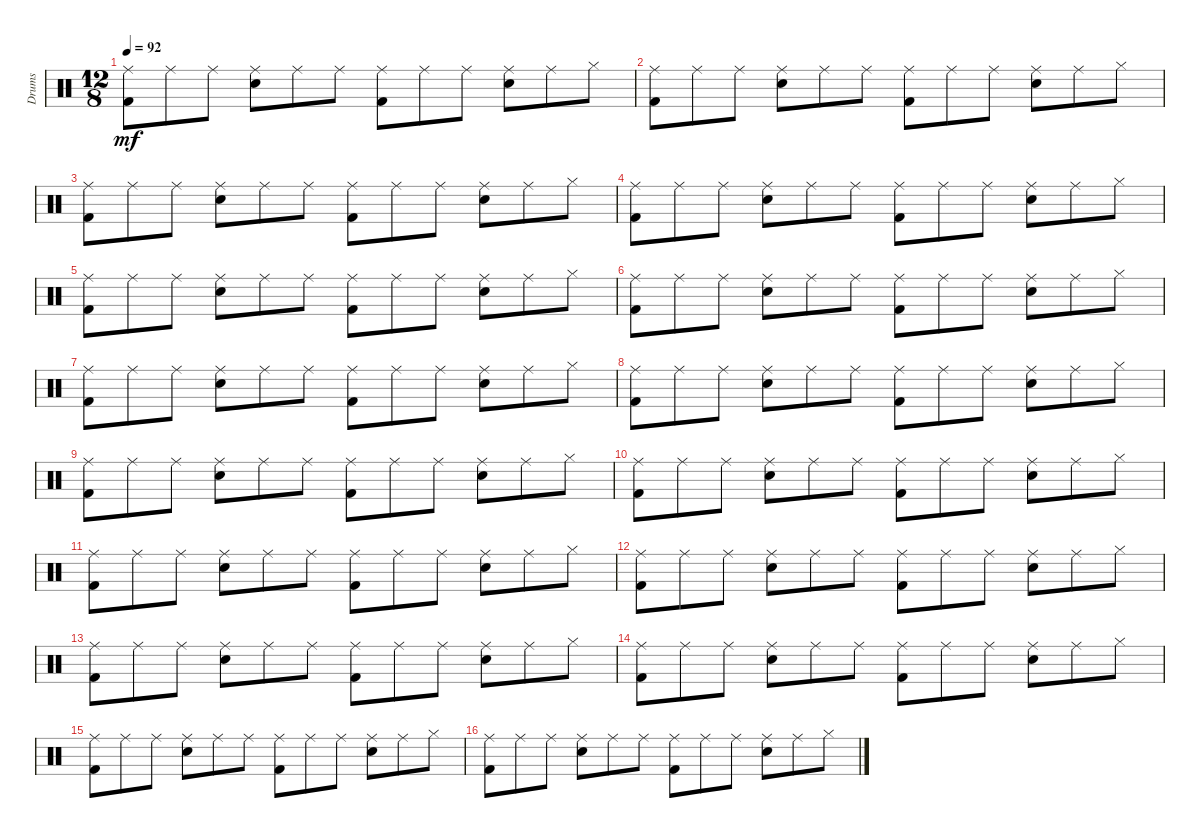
\track ("Drums" "Drums") {instrument percussion}
\staff {score}
\articulation defaults
\ts (12 8)
\tempo 92
\clef neutral
\ks c
("Ride (middle)" "Kick (hit) 2").8{dy mf} "Ride (middle)".8 "Ride (middle)".8 ("Ride (middle)" "Electric Snare (hit)").8 "Ride (middle)".8 "Ride (middle)".8 ("Ride (middle)" "Kick (hit) 2").8 "Ride (middle)".8 "Ride (middle)".8 ("Ride (middle)" "Electric Snare (hit)").8 "Ride (middle)".8 "Hi-Hat (closed)".8 |
("Ride (middle)" "Kick (hit) 2").8 "Ride (middle)".8 "Ride (middle)".8 ("Ride (middle)" "Electric Snare (hit)").8 "Ride (middle)".8 "Ride (middle)".8 ("Ride (middle)" "Kick (hit) 2").8 "Ride (middle)".8 "Ride (middle)".8 ("Ride (middle)" "Electric Snare (hit)").8 "Ride (middle)".8 "Hi-Hat (closed)".8 |
("Ride (middle)" "Kick (hit) 2").8 "Ride (middle)".8 "Ride (middle)".8 ("Ride (middle)" "Electric Snare (hit)").8 "Ride (middle)".8 "Ride (middle)".8 ("Ride (middle)" "Kick (hit) 2").8 "Ride (middle)".8 "Ride (middle)".8 ("Ride (middle)" "Electric Snare (hit)").8 "Ride (middle)".8 "Hi-Hat (closed)".8 |
("Ride (middle)" "Kick (hit) 2").8 "Ride (middle)".8 "Ride (middle)".8 ("Ride (middle)" "Electric Snare (hit)").8 "Ride (middle)".8 "Ride (middle)".8 ("Ride (middle)" "Kick (hit) 2").8 "Ride (middle)".8 "Ride (middle)".8 ("Ride (middle)" "Electric Snare (hit)").8 "Ride (middle)".8 "Hi-Hat (closed)".8 |
("Ride (middle)" "Kick (hit) 2").8 "Ride (middle)".8 "Ride (middle)".8 ("Ride (middle)" "Electric Snare (hit)").8 "Ride (middle)".8 "Ride (middle)".8 ("Ride (middle)" "Kick (hit) 2").8 "Ride (middle)".8 "Ride (middle)".8 ("Ride (middle)" "Electric Snare (hit)").8 "Ride (middle)".8 "Hi-Hat (closed)".8 |
("Ride (middle)" "Kick (hit) 2").8 "Ride (middle)".8 "Ride (middle)".8 ("Ride (middle)" "Electric Snare (hit)").8 "Ride (middle)".8 "Ride (middle)".8 ("Ride (middle)" "Kick (hit) 2").8 "Ride (middle)".8 "Ride (middle)".8 ("Ride (middle)" "Electric Snare (hit)").8 "Ride (middle)".8 "Hi-Hat (closed)".8 |
("Ride (middle)" "Kick (hit) 2").8 "Ride (middle)".8 "Ride (middle)".8 ("Ride (middle)" "Electric Snare (hit)").8 "Ride (middle)".8 "Ride (middle)".8 ("Ride (middle)" "Kick (hit) 2").8 "Ride (middle)".8 "Ride (middle)".8 ("Ride (middle)" "Electric Snare (hit)").8 "Ride (middle)".8 "Hi-Hat (closed)".8 |
("Ride (middle)" "Kick (hit) 2").8 "Ride (middle)".8 "Ride (middle)".8 ("Ride (middle)" "Electric Snare (hit)").8 "Ride (middle)".8 "Ride (middle)".8 ("Ride (middle)" "Kick (hit) 2").8 "Ride (middle)".8 "Ride (middle)".8 ("Ride (middle)" "Electric Snare (hit)").8 "Ride (middle)".8 "Hi-Hat (closed)".8 |
("Ride (middle)" "Kick (hit) 2").8 "Ride (middle)".8 "Ride (middle)".8 ("Ride (middle)" "Electric Snare (hit)").8 "Ride (middle)".8 "Ride (middle)".8 ("Ride (middle)" "Kick (hit) 2").8 "Ride (middle)".8 "Ride (middle)".8 ("Ride (middle)" "Electric Snare (hit)").8 "Ride (middle)".8 "Hi-Hat (closed)".8 |
("Ride (middle)" "Kick (hit) 2").8 "Ride (middle)".8 "Ride (middle)".8 ("Ride (middle)" "Electric Snare (hit)").8 "Ride (middle)".8 "Ride (middle)".8 ("Ride (middle)" "Kick (hit) 2").8 "Ride (middle)".8 "Ride (middle)".8 ("Ride (middle)" "Electric Snare (hit)").8 "Ride (middle)".8 "Hi-Hat (closed)".8 |
("Ride (middle)" "Kick (hit) 2").8 "Ride (middle)".8 "Ride (middle)".8 ("Ride (middle)" "Electric Snare (hit)").8 "Ride (middle)".8 "Ride (middle)".8 ("Ride (middle)" "Kick (hit) 2").8 "Ride (middle)".8 "Ride (middle)".8 ("Ride (middle)" "Electric Snare (hit)").8 "Ride (middle)".8 "Hi-Hat (closed)".8 |
("Ride (middle)" "Kick (hit) 2").8 "Ride (middle)".8 "Ride (middle)".8 ("Ride (middle)" "Electric Snare (hit)").8 "Ride (middle)".8 "Ride (middle)".8 ("Ride (middle)" "Kick (hit) 2").8 "Ride (middle)".8 "Ride (middle)".8 ("Ride (middle)" "Electric Snare (hit)").8 "Ride (middle)".8 "Hi-Hat (closed)".8 |
("Ride (middle)" "Kick (hit) 2").8 "Ride (middle)".8 "Ride (middle)".8 ("Ride (middle)" "Electric Snare (hit)").8 "Ride (middle)".8 "Ride (middle)".8 ("Ride (middle)" "Kick (hit) 2").8 "Ride (middle)".8 "Ride (middle)".8 ("Ride (middle)" "Electric Snare (hit)").8 "Ride (middle)".8 "Hi-Hat (closed)".8 |
("Ride (middle)" "Kick (hit) 2").8 "Ride (middle)".8 "Ride (middle)".8 ("Ride (middle)" "Electric Snare (hit)").8 "Ride (middle)".8 "Ride (middle)".8 ("Ride (middle)" "Kick (hit) 2").8 "Ride (middle)".8 "Ride (middle)".8 ("Ride (middle)" "Electric Snare (hit)").8 "Ride (middle)".8 "Hi-Hat (closed)".8 |
("Ride (middle)" "Kick (hit) 2").8 "Ride (middle)".8 "Ride (middle)".8 ("Ride (middle)" "Electric Snare (hit)").8 "Ride (middle)".8 "Ride (middle)".8 ("Ride (middle)" "Kick (hit) 2").8 "Ride (middle)".8 "Ride (middle)".8 ("Ride (middle)" "Electric Snare (hit)").8 "Ride (middle)".8 "Hi-Hat (closed)".8 |
("Ride (middle)" "Kick (hit) 2").8 "Ride (middle)".8 "Ride (middle)".8 ("Ride (middle)" "Electric Snare (hit)").8 "Ride (middle)".8 "Ride (middle)".8 ("Ride (middle)" "Kick (hit) 2").8 "Ride (middle)".8 "Ride (middle)".8 ("Ride (middle)" "Electric Snare (hit)").8 "Ride (middle)".8 "Hi-Hat (closed)".8
